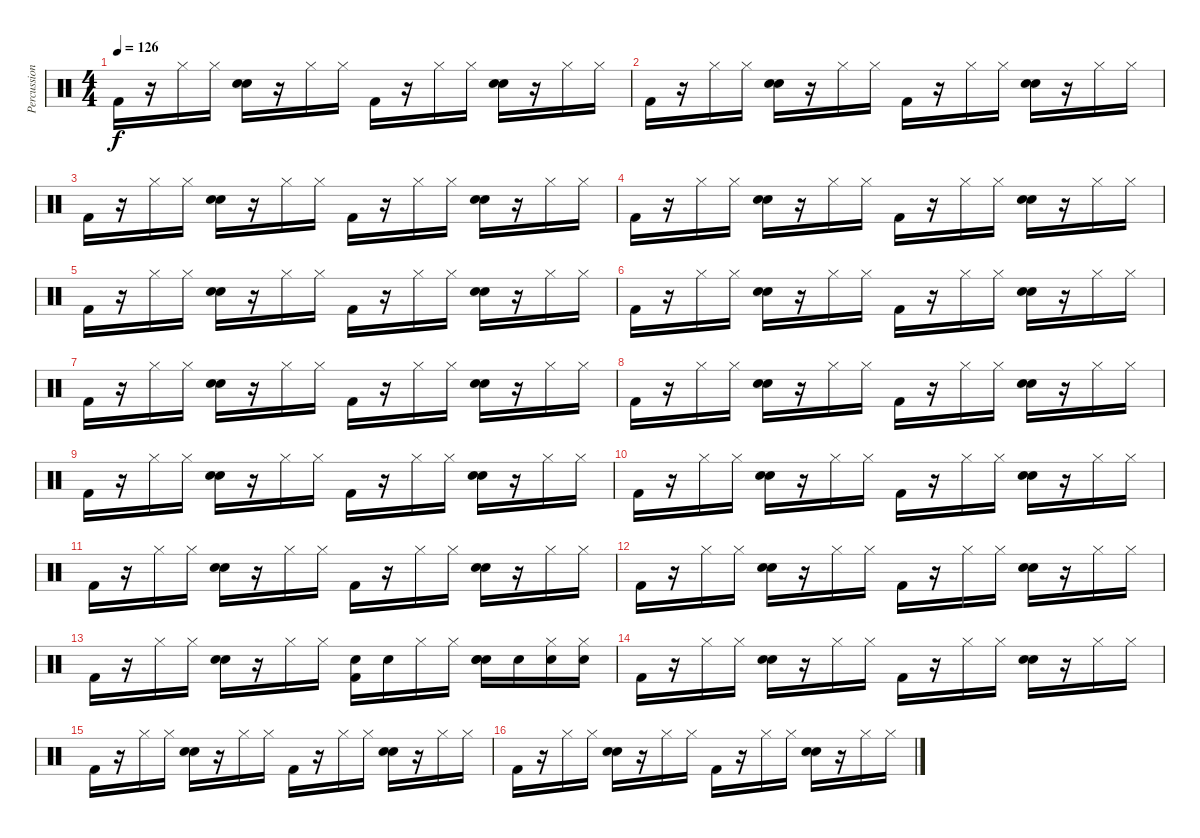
\track ("Percussion" "Percussion") {instrument percussion}
\staff {score}
\articulation defaults
\ts (4 4)
\tempo 126
\clef neutral
\ks c "Kick (hit) 2".16{dy f}
r.16 "Hi-Hat (closed)".16 "Hi-Hat (closed)".16 ("Hand Clap (hit)" "Electric Snare (hit)").16 r.16 "Hi-Hat (closed)".16 "Hi-Hat (closed)".16 "Kick (hit) 2".16 r.16 "Hi-Hat (closed)".16 "Hi-Hat (closed)".16 ("Hand Clap (hit)" "Electric Snare (hit)").16 r.16 "Hi-Hat (closed)".16 "Hi-Hat (closed)".16 |
"Kick (hit) 2".16 r.16 "Hi-Hat (closed)".16 "Hi-Hat (closed)".16 ("Hand Clap (hit)" "Electric Snare (hit)").16 r.16 "Hi-Hat (closed)".16 "Hi-Hat (closed)".16 "Kick (hit) 2".16 r.16 "Hi-Hat (closed)".16 "Hi-Hat (closed)".16 ("Hand Clap (hit)" "Electric Snare (hit)").16 r.16 "Hi-Hat (closed)".16 "Hi-Hat (closed)".16 |
"Kick (hit) 2".16 r.16 "Hi-Hat (closed)".16 "Hi-Hat (closed)".16 ("Hand Clap (hit)" "Electric Snare (hit)").16 r.16 "Hi-Hat (closed)".16 "Hi-Hat (closed)".16 "Kick (hit) 2".16 r.16 "Hi-Hat (closed)".16 "Hi-Hat (closed)".16 ("Hand Clap (hit)" "Electric Snare (hit)").16 r.16 "Hi-Hat (closed)".16 "Hi-Hat (closed)".16 |
"Kick (hit) 2".16 r.16 "Hi-Hat (closed)".16 "Hi-Hat (closed)".16 ("Hand Clap (hit)" "Electric Snare (hit)").16 r.16 "Hi-Hat (closed)".16 "Hi-Hat (closed)".16 "Kick (hit) 2".16 r.16 "Hi-Hat (closed)".16 "Hi-Hat (closed)".16 ("Hand Clap (hit)" "Electric Snare (hit)").16 r.16 "Hi-Hat (closed)".16 "Hi-Hat (closed)".16 |
"Kick (hit) 2".16 r.16 "Hi-Hat (closed)".16 "Hi-Hat (closed)".16 ("Hand Clap (hit)" "Electric Snare (hit)").16 r.16 "Hi-Hat (closed)".16 "Hi-Hat (closed)".16 "Kick (hit) 2".16 r.16 "Hi-Hat (closed)".16 "Hi-Hat (closed)".16 ("Hand Clap (hit)" "Electric Snare (hit)").16 r.16 "Hi-Hat (closed)".16 "Hi-Hat (closed)".16 |
"Kick (hit) 2".16 r.16 "Hi-Hat (closed)".16 "Hi-Hat (closed)".16 ("Hand Clap (hit)" "Electric Snare (hit)").16 r.16 "Hi-Hat (closed)".16 "Hi-Hat (closed)".16 "Kick (hit) 2".16 r.16 "Hi-Hat (closed)".16 "Hi-Hat (closed)".16 ("Hand Clap (hit)" "Electric Snare (hit)").16 r.16 "Hi-Hat (closed)".16 "Hi-Hat (closed)".16 |
"Kick (hit) 2".16 r.16 "Hi-Hat (closed)".16 "Hi-Hat (closed)".16 ("Hand Clap (hit)" "Electric Snare (hit)").16 r.16 "Hi-Hat (closed)".16 "Hi-Hat (closed)".16 "Kick (hit) 2".16 r.16 "Hi-Hat (closed)".16 "Hi-Hat (closed)".16 ("Hand Clap (hit)" "Electric Snare (hit)").16 r.16 "Hi-Hat (closed)".16 "Hi-Hat (closed)".16 |
"Kick (hit) 2".16 r.16 "Hi-Hat (closed)".16 "Hi-Hat (closed)".16 ("Hand Clap (hit)" "Electric Snare (hit)").16 r.16 "Hi-Hat (closed)".16 "Hi-Hat (closed)".16 "Kick (hit) 2".16 r.16 "Hi-Hat (closed)".16 "Hi-Hat (closed)".16 ("Hand Clap (hit)" "Electric Snare (hit)").16 r.16 "Hi-Hat (closed)".16 "Hi-Hat (closed)".16 |
"Kick (hit) 2".16 r.16 "Hi-Hat (closed)".16 "Hi-Hat (closed)".16 ("Hand Clap (hit)" "Electric Snare (hit)").16 r.16 "Hi-Hat (closed)".16 "Hi-Hat (closed)".16 "Kick (hit) 2".16 r.16 "Hi-Hat (closed)".16 "Hi-Hat (closed)".16 ("Hand Clap (hit)" "Electric Snare (hit)").16 r.16 "Hi-Hat (closed)".16 "Hi-Hat (closed)".16 |
"Kick (hit) 2".16 r.16 "Hi-Hat (closed)".16 "Hi-Hat (closed)".16 ("Hand Clap (hit)" "Electric Snare (hit)").16 r.16 "Hi-Hat (closed)".16 "Hi-Hat (closed)".16 "Kick (hit) 2".16 r.16 "Hi-Hat (closed)".16 "Hi-Hat (closed)".16 ("Hand Clap (hit)" "Electric Snare (hit)").16 r.16 "Hi-Hat (closed)".16 "Hi-Hat (closed)".16 |
"Kick (hit) 2".16 r.16 "Hi-Hat (closed)".16 "Hi-Hat (closed)".16 ("Hand Clap (hit)" "Electric Snare (hit)").16 r.16 "Hi-Hat (closed)".16 "Hi-Hat (closed)".16 "Kick (hit) 2".16 r.16 "Hi-Hat (closed)".16 "Hi-Hat (closed)".16 ("Hand Clap (hit)" "Electric Snare (hit)").16 r.16 "Hi-Hat (closed)".16 "Hi-Hat (closed)".16 |
"Kick (hit) 2".16 r.16 "Hi-Hat (closed)".16 "Hi-Hat (closed)".16 ("Hand Clap (hit)" "Electric Snare (hit)").16 r.16 "Hi-Hat (closed)".16 "Hi-Hat (closed)".16 "Kick (hit) 2".16 r.16 "Hi-Hat (closed)".16 "Hi-Hat (closed)".16 ("Hand Clap (hit)" "Electric Snare (hit)").16 r.16 "Hi-Hat (closed)".16 "Hi-Hat (closed)".16 |
"Kick (hit) 2".16 r.16 "Hi-Hat (closed)".16 "Hi-Hat (closed)".16 ("Hand Clap (hit)" "Electric Snare (hit)").16 r.16 "Hi-Hat (closed)".16 "Hi-Hat (closed)".16 ("Snare (hit) 2" "Kick (hit) 2").16 "Snare (hit) 2".16 "Hi-Hat (closed)".16 "Hi-Hat (closed)".16 ("Snare (hit) 2" "Hand Clap (hit)" "Electric Snare (hit)").16 "Snare (hit) 2".16 ("Hi-Hat (closed)" "Snare (hit) 2").16 ("Hi-Hat (closed)" "Snare (hit) 2").16 |
"Kick (hit) 2".16 r.16 "Hi-Hat (closed)".16 "Hi-Hat (closed)".16 ("Hand Clap (hit)" "Electric Snare (hit)").16 r.16 "Hi-Hat (closed)".16 "Hi-Hat (closed)".16 "Kick (hit) 2".16 r.16 "Hi-Hat (closed)".16 "Hi-Hat (closed)".16 ("Hand Clap (hit)" "Electric Snare (hit)").16 r.16 "Hi-Hat (closed)".16 "Hi-Hat (closed)".16 |
"Kick (hit) 2".16 r.16 "Hi-Hat (closed)".16 "Hi-Hat (closed)".16 ("Hand Clap (hit)" "Electric Snare (hit)").16 r.16 "Hi-Hat (closed)".16 "Hi-Hat (closed)".16 "Kick (hit) 2".16 r.16 "Hi-Hat (closed)".16 "Hi-Hat (closed)".16 ("Hand Clap (hit)" "Electric Snare (hit)").16 r.16 "Hi-Hat (closed)".16 "Hi-Hat (closed)".16 |
"Kick (hit) 2".16 r.16 "Hi-Hat (closed)".16 "Hi-Hat (closed)".16 ("Hand Clap (hit)" "Electric Snare (hit)").16 r.16 "Hi-Hat (closed)".16 "Hi-Hat (closed)".16 "Kick (hit) 2".16 r.16 "Hi-Hat (closed)".16 "Hi-Hat (closed)".16 ("Hand Clap (hit)" "Electric Snare (hit)").16 r.16 "Hi-Hat (closed)".16 "Hi-Hat (closed)".16
